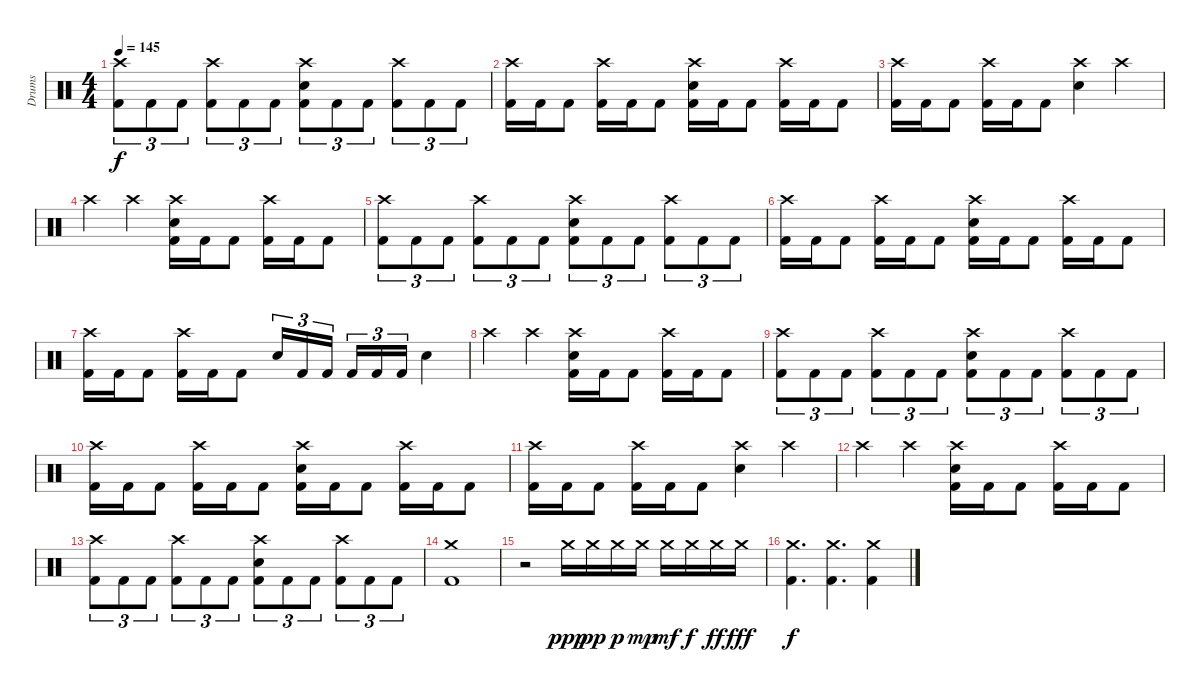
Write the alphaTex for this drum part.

\track ("Drums" "Drums") {instrument percussion}
\staff {score}
\articulation defaults
\ts (4 4)
\tempo 145
\clef neutral
\ks c
("Crash high (hit)" "Kick (hit) 2").8{tu (3 2) dy f} "Kick (hit) 2".8{tu (3 2)} "Kick (hit) 2".8{tu (3 2)} ("Crash high (hit)" "Kick (hit) 2").8{tu (3 2)} "Kick (hit) 2".8{tu (3 2)} "Kick (hit) 2".8{tu (3 2)} ("Crash high (hit)" "Snare (hit) 2" "Kick (hit) 2").8{tu (3 2)} "Kick (hit) 2".8{tu (3 2)} "Kick (hit) 2".8{tu (3 2)} ("Crash high (hit)" "Kick (hit) 2").8{tu (3 2)} "Kick (hit) 2".8{tu (3 2)} "Kick (hit) 2".8{tu (3 2)} |
("Crash high (hit)" "Kick (hit) 2").16 "Kick (hit) 2".16 "Kick (hit) 2".8 ("Crash high (hit)" "Kick (hit) 2").16 "Kick (hit) 2".16 "Kick (hit) 2".8 ("Crash high (hit)" "Snare (hit) 2" "Kick (hit) 2").16 "Kick (hit) 2".16 "Kick (hit) 2".8 ("Crash high (hit)" "Kick (hit) 2").16 "Kick (hit) 2".16 "Kick (hit) 2".8 |
("Crash high (hit)" "Kick (hit) 2").16 "Kick (hit) 2".16 "Kick (hit) 2".8 ("Crash high (hit)" "Kick (hit) 2").16 "Kick (hit) 2".16 "Kick (hit) 2".8 ("Crash high (hit)" "Snare (hit) 2").4 "Crash high (hit)".4 |
"Crash high (hit)".4 "Crash high (hit)".4 ("Crash high (hit)" "Snare (hit) 2" "Kick (hit) 2").16 "Kick (hit) 2".16 "Kick (hit) 2".8 ("Crash high (hit)" "Kick (hit) 2").16 "Kick (hit) 2".16 "Kick (hit) 2".8 |
("Crash high (hit)" "Kick (hit) 2").8{tu (3 2)} "Kick (hit) 2".8{tu (3 2)} "Kick (hit) 2".8{tu (3 2)} ("Crash high (hit)" "Kick (hit) 2").8{tu (3 2)} "Kick (hit) 2".8{tu (3 2)} "Kick (hit) 2".8{tu (3 2)} ("Crash high (hit)" "Snare (hit) 2" "Kick (hit) 2").8{tu (3 2)} "Kick (hit) 2".8{tu (3 2)} "Kick (hit) 2".8{tu (3 2)} ("Crash high (hit)" "Kick (hit) 2").8{tu (3 2)} "Kick (hit) 2".8{tu (3 2)} "Kick (hit) 2".8{tu (3 2)} |
("Crash high (hit)" "Kick (hit) 2").16 "Kick (hit) 2".16 "Kick (hit) 2".8 ("Crash high (hit)" "Kick (hit) 2").16 "Kick (hit) 2".16 "Kick (hit) 2".8 ("Crash high (hit)" "Snare (hit) 2" "Kick (hit) 2").16 "Kick (hit) 2".16 "Kick (hit) 2".8 ("Crash high (hit)" "Kick (hit) 2").16 "Kick (hit) 2".16 "Kick (hit) 2".8 |
("Crash high (hit)" "Kick (hit) 2").16 "Kick (hit) 2".16 "Kick (hit) 2".8 ("Crash high (hit)" "Kick (hit) 2").16 "Kick (hit) 2".16 "Kick (hit) 2".8 "Snare (hit) 2".16{tu (3 2)} "Kick (hit) 2".16{tu (3 2)} "Kick (hit) 2".16{tu (3 2) beam splitsecondary} "Kick (hit) 2".16{tu (3 2)} "Kick (hit) 2".16{tu (3 2)} "Kick (hit) 2".16{tu (3 2)} "Snare (hit) 2".4 |
"Crash high (hit)".4 "Crash high (hit)".4 ("Crash high (hit)" "Snare (hit) 2" "Kick (hit) 2").16 "Kick (hit) 2".16 "Kick (hit) 2".8 ("Crash high (hit)" "Kick (hit) 2").16 "Kick (hit) 2".16 "Kick (hit) 2".8 |
("Crash high (hit)" "Kick (hit) 2").8{tu (3 2)} "Kick (hit) 2".8{tu (3 2)} "Kick (hit) 2".8{tu (3 2)} ("Crash high (hit)" "Kick (hit) 2").8{tu (3 2)} "Kick (hit) 2".8{tu (3 2)} "Kick (hit) 2".8{tu (3 2)} ("Crash high (hit)" "Snare (hit) 2" "Kick (hit) 2").8{tu (3 2)} "Kick (hit) 2".8{tu (3 2)} "Kick (hit) 2".8{tu (3 2)} ("Crash high (hit)" "Kick (hit) 2").8{tu (3 2)} "Kick (hit) 2".8{tu (3 2)} "Kick (hit) 2".8{tu (3 2)} |
("Crash high (hit)" "Kick (hit) 2").16 "Kick (hit) 2".16 "Kick (hit) 2".8 ("Crash high (hit)" "Kick (hit) 2").16 "Kick (hit) 2".16 "Kick (hit) 2".8 ("Crash high (hit)" "Snare (hit) 2" "Kick (hit) 2").16 "Kick (hit) 2".16 "Kick (hit) 2".8 ("Crash high (hit)" "Kick (hit) 2").16 "Kick (hit) 2".16 "Kick (hit) 2".8 |
("Crash high (hit)" "Kick (hit) 2").16 "Kick (hit) 2".16 "Kick (hit) 2".8 ("Crash high (hit)" "Kick (hit) 2").16 "Kick (hit) 2".16 "Kick (hit) 2".8 ("Crash high (hit)" "Snare (hit) 2").4 "Crash high (hit)".4 |
"Crash high (hit)".4 "Crash high (hit)".4 ("Crash high (hit)" "Snare (hit) 2" "Kick (hit) 2").16 "Kick (hit) 2".16 "Kick (hit) 2".8 ("Crash high (hit)" "Kick (hit) 2").16 "Kick (hit) 2".16 "Kick (hit) 2".8 |
("Crash high (hit)" "Kick (hit) 2").8{tu (3 2)} "Kick (hit) 2".8{tu (3 2)} "Kick (hit) 2".8{tu (3 2)} ("Crash high (hit)" "Kick (hit) 2").8{tu (3 2)} "Kick (hit) 2".8{tu (3 2)} "Kick (hit) 2".8{tu (3 2)} ("Crash high (hit)" "Snare (hit) 2" "Kick (hit) 2").8{tu (3 2)} "Kick (hit) 2".8{tu (3 2)} "Kick (hit) 2".8{tu (3 2)} ("Crash high (hit)" "Kick (hit) 2").8{tu (3 2)} "Kick (hit) 2".8{tu (3 2)} "Kick (hit) 2".8{tu (3 2)} |
("Crash medium (hit)" "Kick (hit) 2").1 |
r.2 "Crash medium (hit)".16{dy ppp} "Crash medium (hit)".16{dy pp} "Crash medium (hit)".16{dy p} "Crash medium (hit)".16{dy mp} "Crash medium (hit)".16{dy mf} "Crash medium (hit)".16{dy f} "Crash medium (hit)".16{dy ff} "Crash medium (hit)".16{dy fff} |
("Crash medium (hit)" "Kick (hit) 2").4{d dy f} ("Crash medium (hit)" "Kick (hit) 2").4{d} ("Crash medium (hit)" "Kick (hit) 2").4
